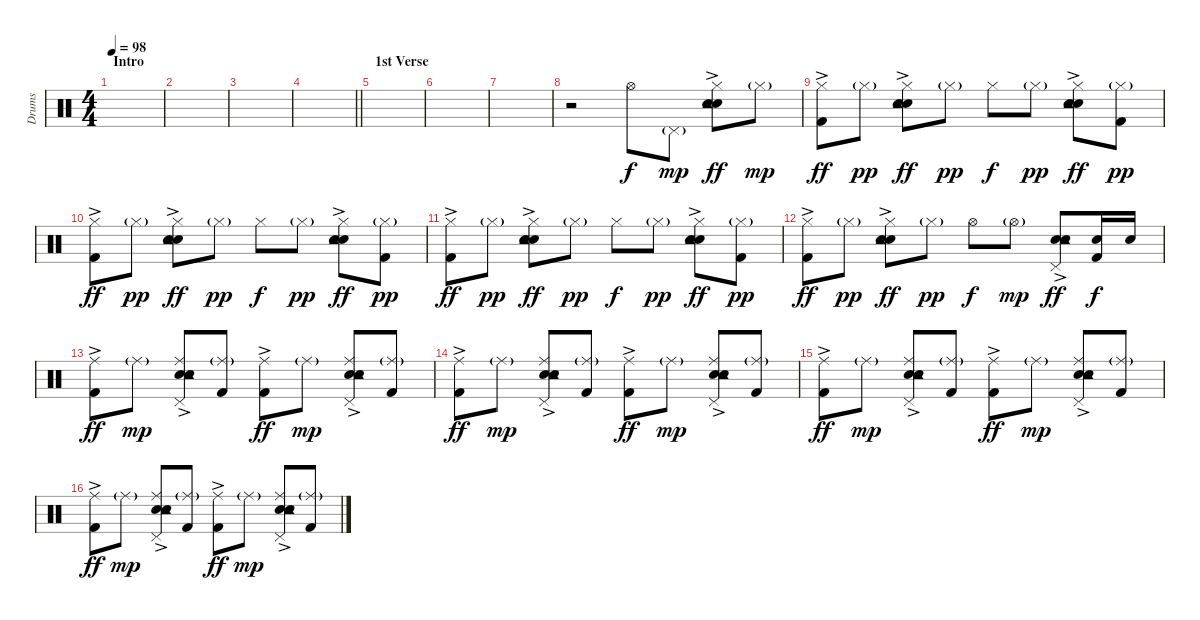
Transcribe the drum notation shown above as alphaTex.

\track ("Drums" "Drums") {instrument percussion}
\staff {score}
\articulation defaults
\ts (4 4)
\section ("" "Intro")
\tempo 98
\clef neutral
\ks c
|
|
|
\barLineRight lightlight
|
\section ("" "1st Verse")
|
|
|
r.2 "Hi-Hat (open)".8 "Pedal Hi-Hat (hit)"{g}.8{dy mp} ("Electric Snare (hit)"{ac} "Snare (hit) 2" "Tambourine (hit)" "Hi-Hat (closed)").8{dy ff} "Hi-Hat (closed)"{g}.8{dy mp} |
("Kick (hit) 2"{ac} "Hi-Hat (closed)").8{dy ff} "Hi-Hat (closed)"{g}.8{dy pp} ("Electric Snare (hit)"{ac} "Snare (hit) 2" "Tambourine (hit)" "Hi-Hat (closed)").8{dy ff} "Hi-Hat (closed)"{g}.8{dy pp} "Hi-Hat (closed)".8{dy f} "Hi-Hat (closed)"{g}.8{dy pp} ("Electric Snare (hit)"{ac} "Snare (hit) 2" "Tambourine (hit)" "Hi-Hat (closed)").8{dy ff} ("Kick (hit) 2" "Hi-Hat (closed)"{g}).8{dy pp} |
("Kick (hit) 2"{ac} "Hi-Hat (closed)").8{dy ff} "Hi-Hat (closed)"{g}.8{dy pp} ("Electric Snare (hit)"{ac} "Snare (hit) 2" "Tambourine (hit)" "Hi-Hat (closed)").8{dy ff} "Hi-Hat (closed)"{g}.8{dy pp} "Hi-Hat (closed)".8{dy f} "Hi-Hat (closed)"{g}.8{dy pp} ("Electric Snare (hit)"{ac} "Snare (hit) 2" "Tambourine (hit)" "Hi-Hat (closed)").8{dy ff} ("Kick (hit) 2" "Hi-Hat (closed)"{g}).8{dy pp} |
("Kick (hit) 2"{ac} "Hi-Hat (closed)").8{dy ff} "Hi-Hat (closed)"{g}.8{dy pp} ("Electric Snare (hit)"{ac} "Snare (hit) 2" "Tambourine (hit)" "Hi-Hat (closed)").8{dy ff} "Hi-Hat (closed)"{g}.8{dy pp} "Hi-Hat (closed)".8{dy f} "Hi-Hat (closed)"{g}.8{dy pp} ("Electric Snare (hit)"{ac} "Snare (hit) 2" "Tambourine (hit)" "Hi-Hat (closed)").8{dy ff} ("Kick (hit) 2" "Hi-Hat (closed)"{g}).8{dy pp} |
("Kick (hit) 2"{ac} "Hi-Hat (closed)").8{dy ff} "Hi-Hat (closed)"{g}.8{dy pp} ("Electric Snare (hit)"{ac} "Snare (hit) 2" "Tambourine (hit)" "Hi-Hat (closed)").8{dy ff} "Hi-Hat (closed)"{g}.8{dy pp} "Hi-Hat (open)".8{dy f} "Hi-Hat (open)"{g}.8{dy mp} ("Electric Snare (hit)"{ac} "Snare (hit) 2" "Tambourine (hit)" "Pedal Hi-Hat (hit)").8{dy ff} ("Kick (hit) 2" "Snare (hit) 2").16{dy f} "Snare (hit) 2".16 |
("Kick (hit) 2"{ac} "Ride (middle)").8{dy ff} "Ride (middle)"{g}.8{dy mp} ("Electric Snare (hit)"{ac} "Snare (hit) 2" "Pedal Hi-Hat (hit)" "Tambourine (hit)" "Ride (middle)").8 ("Kick (hit) 2" "Ride (middle)"{g}).8 ("Kick (hit) 2"{ac} "Ride (middle)").8{dy ff} "Ride (middle)"{g}.8{dy mp} ("Electric Snare (hit)"{ac} "Snare (hit) 2" "Pedal Hi-Hat (hit)" "Tambourine (hit)" "Ride (middle)").8 ("Kick (hit) 2" "Ride (middle)"{g}).8 |
("Kick (hit) 2"{ac} "Ride (middle)").8{dy ff} "Ride (middle)"{g}.8{dy mp} ("Electric Snare (hit)"{ac} "Snare (hit) 2" "Pedal Hi-Hat (hit)" "Tambourine (hit)" "Ride (middle)").8 ("Kick (hit) 2" "Ride (middle)"{g}).8 ("Kick (hit) 2"{ac} "Ride (middle)").8{dy ff} "Ride (middle)"{g}.8{dy mp} ("Electric Snare (hit)"{ac} "Snare (hit) 2" "Pedal Hi-Hat (hit)" "Tambourine (hit)" "Ride (middle)").8 ("Kick (hit) 2" "Ride (middle)"{g}).8 |
("Kick (hit) 2"{ac} "Ride (middle)").8{dy ff} "Ride (middle)"{g}.8{dy mp} ("Electric Snare (hit)"{ac} "Snare (hit) 2" "Pedal Hi-Hat (hit)" "Tambourine (hit)" "Ride (middle)").8 ("Kick (hit) 2" "Ride (middle)"{g}).8 ("Kick (hit) 2"{ac} "Ride (middle)").8{dy ff} "Ride (middle)"{g}.8{dy mp} ("Electric Snare (hit)"{ac} "Snare (hit) 2" "Pedal Hi-Hat (hit)" "Tambourine (hit)" "Ride (middle)").8 ("Kick (hit) 2" "Ride (middle)"{g}).8 |
("Kick (hit) 2"{ac} "Ride (middle)").8{dy ff} "Ride (middle)"{g}.8{dy mp} ("Electric Snare (hit)"{ac} "Snare (hit) 2" "Pedal Hi-Hat (hit)" "Tambourine (hit)" "Ride (middle)").8 ("Kick (hit) 2" "Ride (middle)"{g}).8 ("Kick (hit) 2"{ac} "Ride (middle)").8{dy ff} "Ride (middle)"{g}.8{dy mp} ("Electric Snare (hit)"{ac} "Snare (hit) 2" "Pedal Hi-Hat (hit)" "Tambourine (hit)" "Ride (middle)").8 ("Kick (hit) 2" "Ride (middle)"{g}).8
